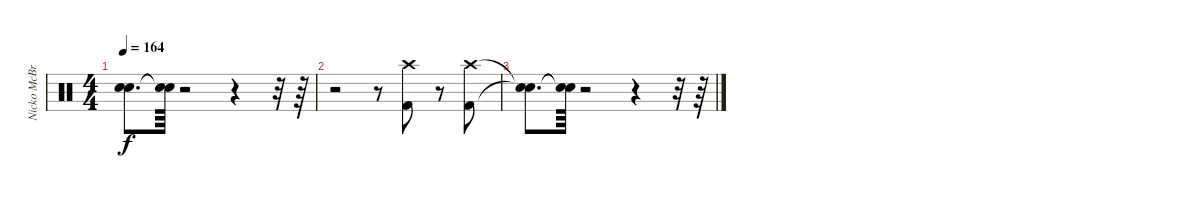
\track ("Nicko McBrian (Drums)" "Nicko McBr") {instrument percussion}
\staff {score}
\articulation defaults
\ts (4 4)
\tempo 164
\clef neutral
\ks c
("Snare (hit)"{t} "Snare (hit)"{t}).8{d dy f} ("Snare (hit)"{t} "Snare (hit)"{t}).64 r.2 r.4 r.32 r.64 |
r.2 r.8 ("Kick (hit) 2" "Crash high (hit)").8 r.8 ("Kick (hit) 2" "Crash high (hit)").8 |
("Snare (hit)"{t} "Snare (hit)"{t}).8{d} ("Snare (hit)"{t} "Snare (hit)"{t}).64 r.2 r.4 r.32 r.64
